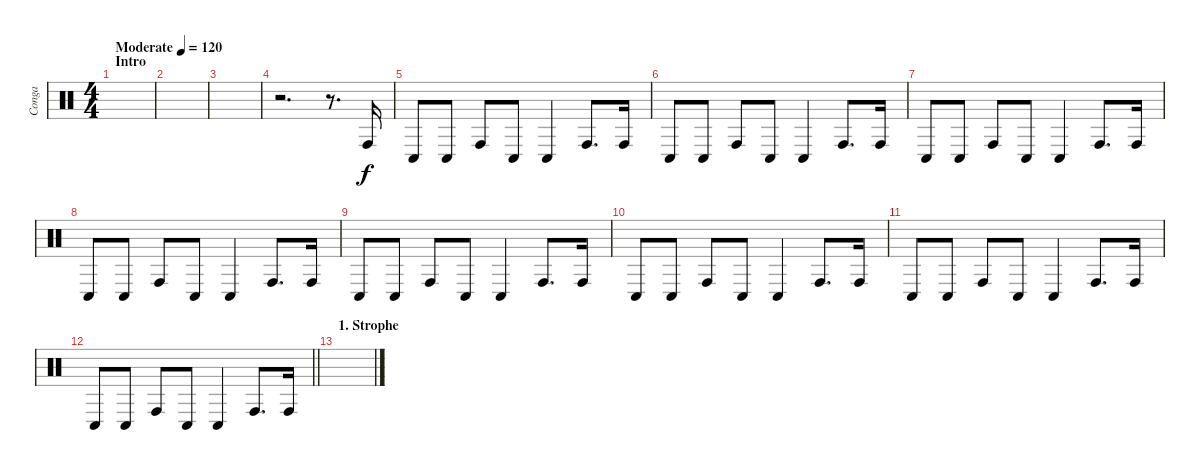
\track ("Conga" "Conga") {instrument percussion}
\staff {score}
\articulation defaults
\ts (4 4)
\section ("" "Intro")
\tempo (120 "Moderate")
\clef neutral
\ks c
|
|
|
r.2{d} r.8{d} "Conga high (hit)".16 |
"Conga low (hit)".8 "Conga low (hit)".8 "Conga high (hit)".8 "Conga low (hit)".8 "Conga low (hit)".4 "Conga high (hit)".8{d} "Conga high (hit)".16 |
"Conga low (hit)".8 "Conga low (hit)".8 "Conga high (hit)".8 "Conga low (hit)".8 "Conga low (hit)".4 "Conga high (hit)".8{d} "Conga high (hit)".16 |
"Conga low (hit)".8 "Conga low (hit)".8 "Conga high (hit)".8 "Conga low (hit)".8 "Conga low (hit)".4 "Conga high (hit)".8{d} "Conga high (hit)".16 |
"Conga low (hit)".8 "Conga low (hit)".8 "Conga high (hit)".8 "Conga low (hit)".8 "Conga low (hit)".4 "Conga high (hit)".8{d} "Conga high (hit)".16 |
"Conga low (hit)".8 "Conga low (hit)".8 "Conga high (hit)".8 "Conga low (hit)".8 "Conga low (hit)".4 "Conga high (hit)".8{d} "Conga high (hit)".16 |
"Conga low (hit)".8 "Conga low (hit)".8 "Conga high (hit)".8 "Conga low (hit)".8 "Conga low (hit)".4 "Conga high (hit)".8{d} "Conga high (hit)".16 |
"Conga low (hit)".8 "Conga low (hit)".8 "Conga high (hit)".8 "Conga low (hit)".8 "Conga low (hit)".4 "Conga high (hit)".8{d} "Conga high (hit)".16 |
\barLineRight lightlight "Conga low (hit)".8 "Conga low (hit)".8 "Conga high (hit)".8 "Conga low (hit)".8 "Conga low (hit)".4 "Conga high (hit)".8{d} "Conga high (hit)".16
|
\section ("" "1. Strophe")
